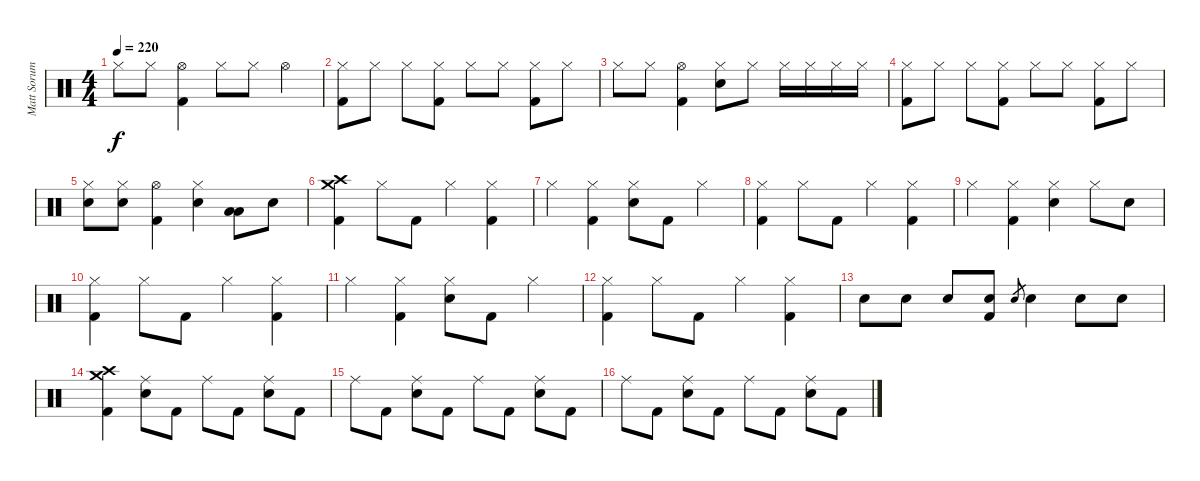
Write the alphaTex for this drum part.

\track ("Matt Sorum - Drums" "Matt Sorum") {instrument percussion}
\staff {score}
\articulation defaults
\ts (4 4)
\tempo 220
\clef neutral
\ks c "Hi-Hat (closed)".8{dy f} "Hi-Hat (closed)".8
("Hi-Hat (open)" "Kick (hit) 2").4 "Hi-Hat (closed)".8 "Hi-Hat (closed)".8 "Hi-Hat (open)".4 |
("Hi-Hat (closed)" "Kick (hit) 2").8 "Hi-Hat (closed)".8 "Hi-Hat (closed)".8 ("Hi-Hat (closed)" "Kick (hit) 2").8 "Hi-Hat (closed)".8 "Hi-Hat (closed)".8 ("Hi-Hat (closed)" "Kick (hit) 2").8 "Hi-Hat (closed)".8 |
"Hi-Hat (closed)".8 "Hi-Hat (closed)".8 ("Hi-Hat (open)" "Kick (hit) 2").4 ("Hi-Hat (closed)" "Snare (hit) 2").8 "Hi-Hat (closed)".8 "Hi-Hat (closed)".16 "Hi-Hat (closed)".16 "Hi-Hat (closed)".16 "Hi-Hat (closed)".16 |
("Hi-Hat (closed)" "Kick (hit) 2").8 "Hi-Hat (closed)".8 "Hi-Hat (closed)".8 ("Hi-Hat (closed)" "Kick (hit) 2").8 "Hi-Hat (closed)".8 "Hi-Hat (closed)".8 ("Hi-Hat (closed)" "Kick (hit) 2").8 "Hi-Hat (closed)".8 |
("Hi-Hat (closed)" "Snare (hit) 2").8 ("Hi-Hat (closed)" "Snare (hit) 2").8 ("Hi-Hat (open)" "Kick (hit) 2").4 ("Hi-Hat (closed)" "Snare (hit) 2").4 ("Low Tom (hit)" "Low Tom (hit)").8 "Snare (hit) 2".8 |
("Crash medium (hit)" "Crash high (hit)" "Kick (hit) 2").4 "Hi-Hat (closed)".8 "Kick (hit) 2".8 "Hi-Hat (closed)".4 ("Hi-Hat (closed)" "Kick (hit) 2").4 |
"Hi-Hat (closed)".4 ("Hi-Hat (closed)" "Kick (hit) 2").4 ("Hi-Hat (closed)" "Snare (hit) 2").8 "Kick (hit) 2".8 "Hi-Hat (closed)".4 |
("Hi-Hat (closed)" "Kick (hit) 2").4 "Hi-Hat (closed)".8 "Kick (hit) 2".8 "Hi-Hat (closed)".4 ("Hi-Hat (closed)" "Kick (hit) 2").4 |
"Hi-Hat (closed)".4 ("Hi-Hat (closed)" "Kick (hit) 2").4 ("Hi-Hat (closed)" "Snare (hit) 2").4 "Hi-Hat (closed)".8 "Snare (hit) 2".8 |
("Hi-Hat (closed)" "Kick (hit) 2").4 "Hi-Hat (closed)".8 "Kick (hit) 2".8 "Hi-Hat (closed)".4 ("Hi-Hat (closed)" "Kick (hit) 2").4 |
"Hi-Hat (closed)".4 ("Hi-Hat (closed)" "Kick (hit) 2").4 ("Hi-Hat (closed)" "Snare (hit) 2").8 "Kick (hit) 2".8 "Hi-Hat (closed)".4 |
("Hi-Hat (closed)" "Kick (hit) 2").4 "Hi-Hat (closed)".8 "Kick (hit) 2".8 "Hi-Hat (closed)".4 ("Hi-Hat (closed)" "Kick (hit) 2").4 |
"Snare (hit) 2".8 "Snare (hit) 2".8 "Snare (hit) 2".8 ("Snare (hit) 2" "Kick (hit) 2").8 "Snare (hit) 2".8{gr} "Snare (hit) 2".4 "Snare (hit) 2".8 "Snare (hit) 2".8 |
("Crash medium (hit)" "Crash high (hit)" "Kick (hit) 2").4 ("Ride (middle)" "Snare (hit) 2").8 "Kick (hit) 2".8 "Ride (middle)".8 "Kick (hit) 2".8 ("Ride (middle)" "Snare (hit) 2").8 "Kick (hit) 2".8 |
"Ride (middle)".8 "Kick (hit) 2".8 ("Ride (middle)" "Snare (hit) 2").8 "Kick (hit) 2".8 "Ride (middle)".8 "Kick (hit) 2".8 ("Ride (middle)" "Snare (hit) 2").8 "Kick (hit) 2".8 |
"Ride (middle)".8 "Kick (hit) 2".8 ("Ride (middle)" "Snare (hit) 2").8 "Kick (hit) 2".8 "Ride (middle)".8 "Kick (hit) 2".8 ("Ride (middle)" "Snare (hit) 2").8 "Kick (hit) 2".8
